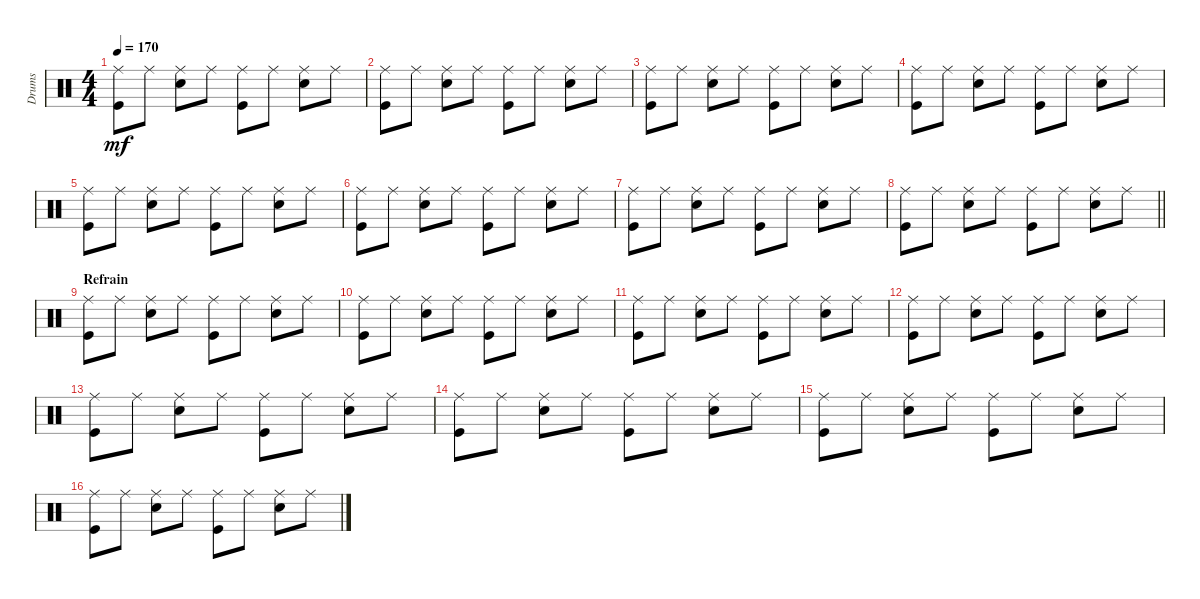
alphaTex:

\track ("Drums" "Drums") {instrument percussion}
\staff {score}
\articulation defaults
\ts (4 4)
\tempo 170
\clef neutral
\ks c
("Ride (middle)" "Kick (hit)").8{dy mf} "Ride (middle)".8 ("Ride (middle)" "Snare (hit) 2").8 "Ride (middle)".8 ("Ride (middle)" "Kick (hit)").8 "Ride (middle)".8 ("Ride (middle)" "Snare (hit) 2").8 "Ride (middle)".8 |
("Ride (middle)" "Kick (hit)").8 "Ride (middle)".8 ("Ride (middle)" "Snare (hit) 2").8 "Ride (middle)".8 ("Ride (middle)" "Kick (hit)").8 "Ride (middle)".8 ("Ride (middle)" "Snare (hit) 2").8 "Ride (middle)".8 |
("Ride (middle)" "Kick (hit)").8 "Ride (middle)".8 ("Ride (middle)" "Snare (hit) 2").8 "Ride (middle)".8 ("Ride (middle)" "Kick (hit)").8 "Ride (middle)".8 ("Ride (middle)" "Snare (hit) 2").8 "Ride (middle)".8 |
("Ride (middle)" "Kick (hit)").8 "Ride (middle)".8 ("Ride (middle)" "Snare (hit) 2").8 "Ride (middle)".8 ("Ride (middle)" "Kick (hit)").8 "Ride (middle)".8 ("Ride (middle)" "Snare (hit) 2").8 "Ride (middle)".8 |
("Ride (middle)" "Kick (hit)").8 "Ride (middle)".8 ("Ride (middle)" "Snare (hit) 2").8 "Ride (middle)".8 ("Ride (middle)" "Kick (hit)").8 "Ride (middle)".8 ("Ride (middle)" "Snare (hit) 2").8 "Ride (middle)".8 |
("Ride (middle)" "Kick (hit)").8 "Ride (middle)".8 ("Ride (middle)" "Snare (hit) 2").8 "Ride (middle)".8 ("Ride (middle)" "Kick (hit)").8 "Ride (middle)".8 ("Ride (middle)" "Snare (hit) 2").8 "Ride (middle)".8 |
("Ride (middle)" "Kick (hit)").8 "Ride (middle)".8 ("Ride (middle)" "Snare (hit) 2").8 "Ride (middle)".8 ("Ride (middle)" "Kick (hit)").8 "Ride (middle)".8 ("Ride (middle)" "Snare (hit) 2").8 "Ride (middle)".8 |
\barLineRight lightlight
("Ride (middle)" "Kick (hit)").8 "Ride (middle)".8 ("Ride (middle)" "Snare (hit) 2").8 "Ride (middle)".8 ("Ride (middle)" "Kick (hit)").8 "Ride (middle)".8 ("Ride (middle)" "Snare (hit) 2").8 "Ride (middle)".8 |
\section ("" "Refrain")
("Ride (middle)" "Kick (hit)").8 "Ride (middle)".8 ("Ride (middle)" "Snare (hit) 2").8 "Ride (middle)".8 ("Ride (middle)" "Kick (hit)").8 "Ride (middle)".8 ("Ride (middle)" "Snare (hit) 2").8 "Ride (middle)".8 |
("Ride (middle)" "Kick (hit)").8 "Ride (middle)".8 ("Ride (middle)" "Snare (hit) 2").8 "Ride (middle)".8 ("Ride (middle)" "Kick (hit)").8 "Ride (middle)".8 ("Ride (middle)" "Snare (hit) 2").8 "Ride (middle)".8 |
("Ride (middle)" "Kick (hit)").8 "Ride (middle)".8 ("Ride (middle)" "Snare (hit) 2").8 "Ride (middle)".8 ("Ride (middle)" "Kick (hit)").8 "Ride (middle)".8 ("Ride (middle)" "Snare (hit) 2").8 "Ride (middle)".8 |
("Ride (middle)" "Kick (hit)").8 "Ride (middle)".8 ("Ride (middle)" "Snare (hit) 2").8 "Ride (middle)".8 ("Ride (middle)" "Kick (hit)").8 "Ride (middle)".8 ("Ride (middle)" "Snare (hit) 2").8 "Ride (middle)".8 |
("Ride (middle)" "Kick (hit)").8 "Ride (middle)".8 ("Ride (middle)" "Snare (hit) 2").8 "Ride (middle)".8 ("Ride (middle)" "Kick (hit)").8 "Ride (middle)".8 ("Ride (middle)" "Snare (hit) 2").8 "Ride (middle)".8 |
("Ride (middle)" "Kick (hit)").8 "Ride (middle)".8 ("Ride (middle)" "Snare (hit) 2").8 "Ride (middle)".8 ("Ride (middle)" "Kick (hit)").8 "Ride (middle)".8 ("Ride (middle)" "Snare (hit) 2").8 "Ride (middle)".8 |
("Ride (middle)" "Kick (hit)").8 "Ride (middle)".8 ("Ride (middle)" "Snare (hit) 2").8 "Ride (middle)".8 ("Ride (middle)" "Kick (hit)").8 "Ride (middle)".8 ("Ride (middle)" "Snare (hit) 2").8 "Ride (middle)".8 |
("Ride (middle)" "Kick (hit)").8 "Ride (middle)".8 ("Ride (middle)" "Snare (hit) 2").8 "Ride (middle)".8 ("Ride (middle)" "Kick (hit)").8 "Ride (middle)".8 ("Ride (middle)" "Snare (hit) 2").8 "Ride (middle)".8
